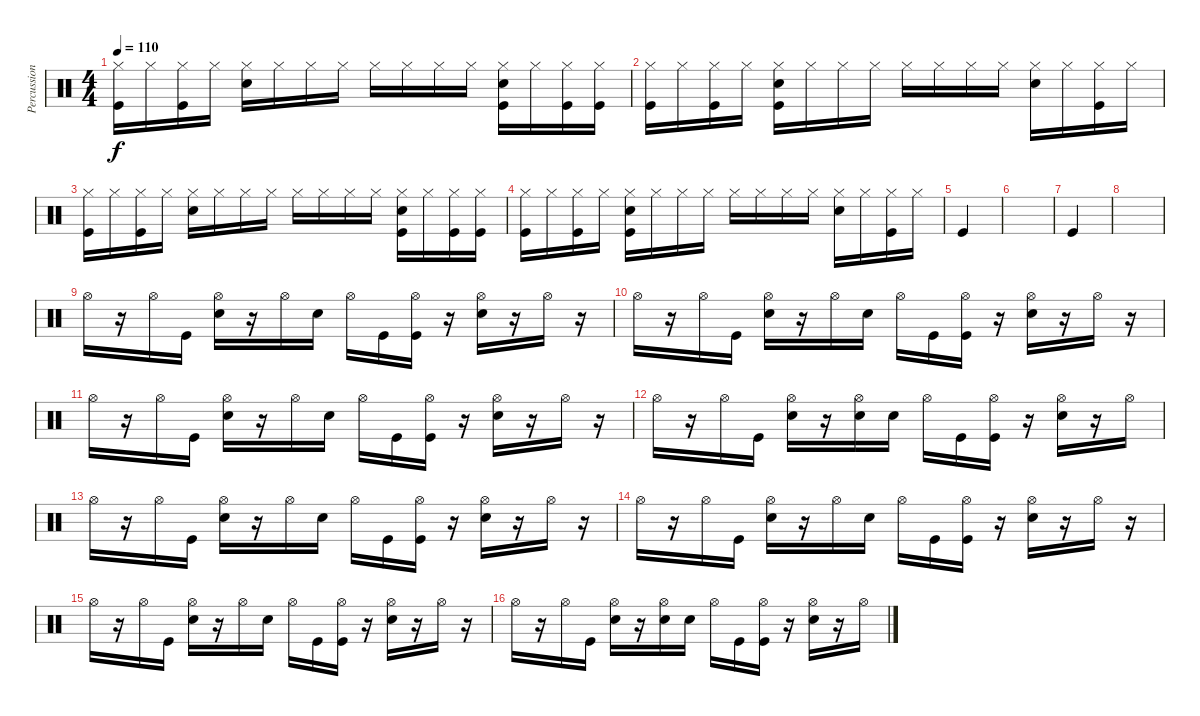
\track ("Percussion" "Percussion") {instrument percussion}
\staff {score}
\articulation defaults
\ts (4 4)
\tempo 110
\clef neutral
\ks c
("Hi-Hat (closed)" "Kick (hit)").16{dy f} "Hi-Hat (closed)".16 ("Hi-Hat (closed)" "Kick (hit)").16 "Hi-Hat (closed)".16 ("Hi-Hat (closed)" "Snare (hit) 2").16 "Hi-Hat (closed)".16 "Hi-Hat (closed)".16 "Hi-Hat (closed)".16 "Hi-Hat (closed)".16 "Hi-Hat (closed)".16 "Hi-Hat (closed)".16 "Hi-Hat (closed)".16 ("Hi-Hat (closed)" "Snare (hit) 2" "Kick (hit)").16 "Hi-Hat (closed)".16 ("Hi-Hat (closed)" "Kick (hit)").16 ("Hi-Hat (closed)" "Kick (hit)").16 |
("Hi-Hat (closed)" "Kick (hit)").16 "Hi-Hat (closed)".16 ("Hi-Hat (closed)" "Kick (hit)").16 "Hi-Hat (closed)".16 ("Hi-Hat (closed)" "Snare (hit) 2" "Kick (hit)").16 "Hi-Hat (closed)".16 "Hi-Hat (closed)".16 "Hi-Hat (closed)".16 "Hi-Hat (closed)".16 "Hi-Hat (closed)".16 "Hi-Hat (closed)".16 "Hi-Hat (closed)".16 ("Hi-Hat (closed)" "Snare (hit) 2").16 "Hi-Hat (closed)".16 ("Hi-Hat (closed)" "Kick (hit)").16 "Hi-Hat (closed)".16 |
("Hi-Hat (closed)" "Kick (hit)").16 "Hi-Hat (closed)".16 ("Hi-Hat (closed)" "Kick (hit)").16 "Hi-Hat (closed)".16 ("Hi-Hat (closed)" "Snare (hit) 2").16 "Hi-Hat (closed)".16 "Hi-Hat (closed)".16 "Hi-Hat (closed)".16 "Hi-Hat (closed)".16 "Hi-Hat (closed)".16 "Hi-Hat (closed)".16 "Hi-Hat (closed)".16 ("Hi-Hat (closed)" "Snare (hit) 2" "Kick (hit)").16 "Hi-Hat (closed)".16 ("Hi-Hat (closed)" "Kick (hit)").16 ("Hi-Hat (closed)" "Kick (hit)").16 |
("Hi-Hat (closed)" "Kick (hit)").16 "Hi-Hat (closed)".16 ("Hi-Hat (closed)" "Kick (hit)").16 "Hi-Hat (closed)".16 ("Hi-Hat (closed)" "Snare (hit) 2" "Kick (hit)").16 "Hi-Hat (closed)".16 "Hi-Hat (closed)".16 "Hi-Hat (closed)".16 "Hi-Hat (closed)".16 "Hi-Hat (closed)".16 "Hi-Hat (closed)".16 "Hi-Hat (closed)".16 ("Hi-Hat (closed)" "Snare (hit) 2").16 "Hi-Hat (closed)".16 ("Hi-Hat (closed)" "Kick (hit)").16 "Hi-Hat (closed)".16 |
"Kick (hit)".4 |
|
"Kick (hit)".4 |
|
"Hi-Hat (open)".16 r.16 "Hi-Hat (open)".16 "Kick (hit)".16 ("Hi-Hat (open)" "Snare (hit) 2").16 r.16 "Hi-Hat (open)".16 "Snare (hit) 2".16 "Hi-Hat (open)".16 "Kick (hit)".16 ("Hi-Hat (open)" "Kick (hit)").16 r.16 ("Hi-Hat (open)" "Snare (hit) 2").16 r.16 "Hi-Hat (open)".16 r.16 |
"Hi-Hat (open)".16 r.16 "Hi-Hat (open)".16 "Kick (hit)".16 ("Hi-Hat (open)" "Snare (hit) 2").16 r.16 "Hi-Hat (open)".16 "Snare (hit) 2".16 "Hi-Hat (open)".16 "Kick (hit)".16 ("Hi-Hat (open)" "Kick (hit)").16 r.16 ("Hi-Hat (open)" "Snare (hit) 2").16 r.16 "Hi-Hat (open)".16 r.16 |
"Hi-Hat (open)".16 r.16 "Hi-Hat (open)".16 "Kick (hit)".16 ("Hi-Hat (open)" "Snare (hit) 2").16 r.16 "Hi-Hat (open)".16 "Snare (hit) 2".16 "Hi-Hat (open)".16 "Kick (hit)".16 ("Hi-Hat (open)" "Kick (hit)").16 r.16 ("Hi-Hat (open)" "Snare (hit) 2").16 r.16 "Hi-Hat (open)".16 r.16 |
"Hi-Hat (open)".16 r.16 "Hi-Hat (open)".16 "Kick (hit)".16 ("Hi-Hat (open)" "Snare (hit) 2").16 r.16 ("Hi-Hat (open)" "Snare (hit) 2").16 "Snare (hit) 2".16 "Hi-Hat (open)".16 "Kick (hit)".16 ("Hi-Hat (open)" "Kick (hit)").16 r.16 ("Hi-Hat (open)" "Snare (hit) 2").16 r.16 "Hi-Hat (open)".16 |
"Hi-Hat (open)".16 r.16 "Hi-Hat (open)".16 "Kick (hit)".16 ("Hi-Hat (open)" "Snare (hit) 2").16 r.16 "Hi-Hat (open)".16 "Snare (hit) 2".16 "Hi-Hat (open)".16 "Kick (hit)".16 ("Hi-Hat (open)" "Kick (hit)").16 r.16 ("Hi-Hat (open)" "Snare (hit) 2").16 r.16 "Hi-Hat (open)".16 r.16 |
"Hi-Hat (open)".16 r.16 "Hi-Hat (open)".16 "Kick (hit)".16 ("Hi-Hat (open)" "Snare (hit) 2").16 r.16 "Hi-Hat (open)".16 "Snare (hit) 2".16 "Hi-Hat (open)".16 "Kick (hit)".16 ("Hi-Hat (open)" "Kick (hit)").16 r.16 ("Hi-Hat (open)" "Snare (hit) 2").16 r.16 "Hi-Hat (open)".16 r.16 |
"Hi-Hat (open)".16 r.16 "Hi-Hat (open)".16 "Kick (hit)".16 ("Hi-Hat (open)" "Snare (hit) 2").16 r.16 "Hi-Hat (open)".16 "Snare (hit) 2".16 "Hi-Hat (open)".16 "Kick (hit)".16 ("Hi-Hat (open)" "Kick (hit)").16 r.16 ("Hi-Hat (open)" "Snare (hit) 2").16 r.16 "Hi-Hat (open)".16 r.16 |
"Hi-Hat (open)".16 r.16 "Hi-Hat (open)".16 "Kick (hit)".16 ("Hi-Hat (open)" "Snare (hit) 2").16 r.16 ("Hi-Hat (open)" "Snare (hit) 2").16 "Snare (hit) 2".16 "Hi-Hat (open)".16 "Kick (hit)".16 ("Hi-Hat (open)" "Kick (hit)").16 r.16 ("Hi-Hat (open)" "Snare (hit) 2").16 r.16 "Hi-Hat (open)".16
